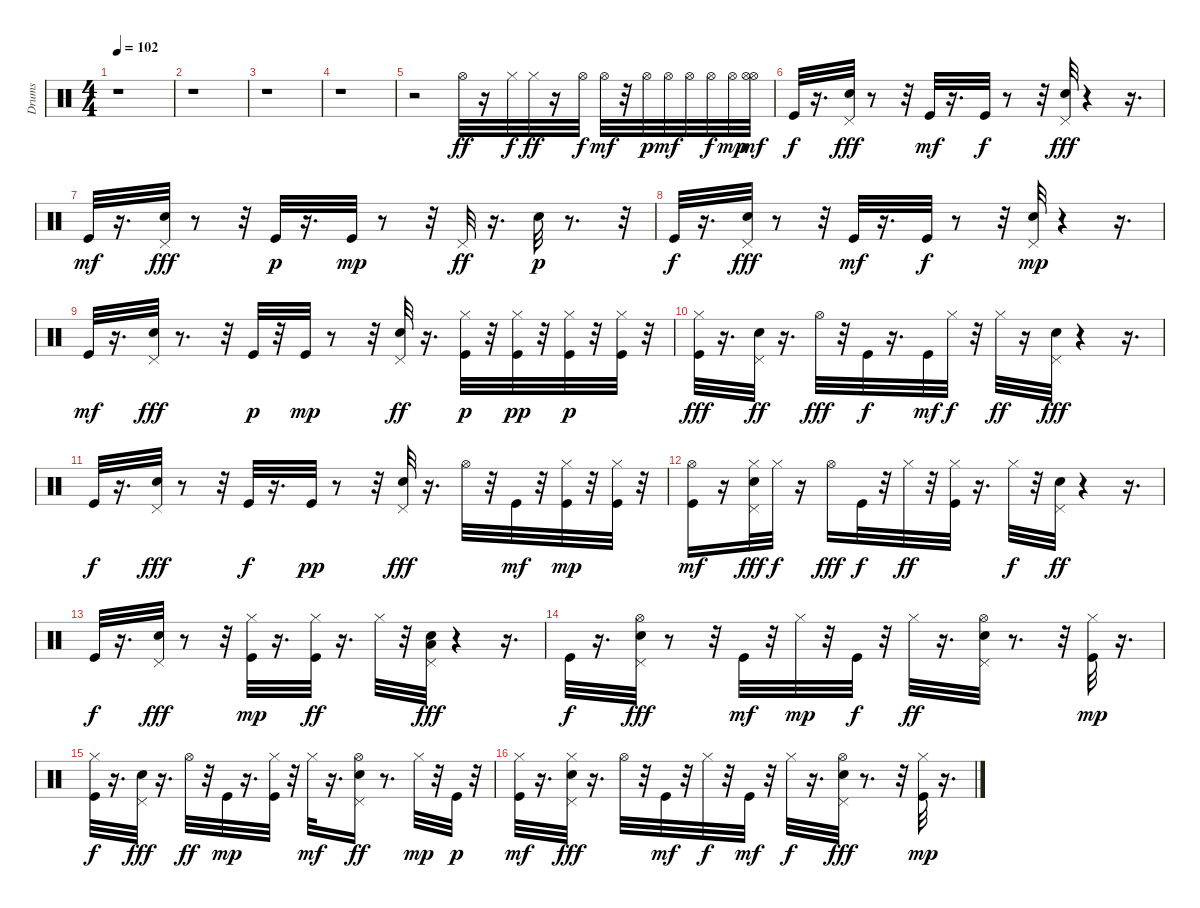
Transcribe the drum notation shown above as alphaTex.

\track ("Drums" "Drums") {instrument percussion}
\staff {score}
\articulation defaults
\ts (4 4)
\tempo 102
\clef neutral
\ks c
r.1{dy ff} |
r.1 |
r.1 |
r.1 |
r.2 "Hi-Hat (open)".32 r.16 "Hi-Hat (closed)".32{dy f} "Hi-Hat (closed)".32{dy ff} r.16 "Hi-Hat (open)".32{dy f} "Hi-Hat (open)".32{dy mf} r.32 "Hi-Hat (open)".32{dy p} "Hi-Hat (open)".32{dy mf} "Hi-Hat (open)".32 "Hi-Hat (open)".32{dy f} "Hi-Hat (open)".32{dy mp} ("Hi-Hat (open)" "Hi-Hat (open)").32{dy mf} |
"Kick (hit)".32{dy f} r.16{d} ("Snare (hit) 2" "Pedal Hi-Hat (hit)").32{dy fff} r.8 r.32 "Kick (hit)".32{dy mf} r.16{d} "Kick (hit)".32{dy f} r.8 r.32 ("Snare (hit) 2" "Pedal Hi-Hat (hit)").32{dy fff} r.4 r.16{d} |
"Kick (hit)".32{dy mf} r.16{d} ("Snare (hit) 2" "Pedal Hi-Hat (hit)").32{dy fff} r.8 r.32 "Kick (hit)".32{dy p} r.16{d} "Kick (hit)".32{dy mp} r.8 r.32 "Pedal Hi-Hat (hit)".32{dy ff} r.16{d} "Snare (hit) 2".32{dy p} r.8{d} r.32 |
"Kick (hit)".32{dy f} r.16{d} ("Snare (hit) 2" "Pedal Hi-Hat (hit)").32{dy fff} r.8 r.32 "Kick (hit)".32{dy mf} r.16{d} "Kick (hit)".32{dy f} r.8 r.32 ("Snare (hit) 2" "Pedal Hi-Hat (hit)").32{dy mp} r.4 r.16{d} |
"Kick (hit)".32{dy mf} r.16{d} ("Snare (hit) 2" "Pedal Hi-Hat (hit)").32{dy fff} r.8{d} r.32 "Kick (hit)".32{dy p} r.32 "Kick (hit)".32{dy mp} r.8 r.32 ("Snare (hit) 2" "Pedal Hi-Hat (hit)").32{dy ff} r.16{d} ("Hi-Hat (closed)" "Kick (hit)").32{dy p} r.32 ("Hi-Hat (closed)" "Kick (hit)").32{dy pp} r.32 ("Hi-Hat (closed)" "Kick (hit)").32{dy p} r.32 ("Hi-Hat (closed)" "Kick (hit)").32 r.32 |
("Hi-Hat (closed)" "Kick (hit)").32{dy fff} r.16{d} ("Snare (hit) 2" "Pedal Hi-Hat (hit)").32{dy ff} r.16{d} "Hi-Hat (open)".32{dy fff} r.32 "Kick (hit)".32{dy f} r.16{d} "Kick (hit)".32{dy mf} "Hi-Hat (closed)".32{dy f} r.32 "Hi-Hat (closed)".32{dy ff} r.16 ("Snare (hit) 2" "Pedal Hi-Hat (hit)").32{dy fff} r.4 r.16{d} |
"Kick (hit)".32{dy f} r.16{d} ("Snare (hit) 2" "Pedal Hi-Hat (hit)").32{dy fff} r.8 r.32 "Kick (hit)".32{dy f} r.16{d} "Kick (hit)".32{dy pp} r.8 r.32 ("Snare (hit) 2" "Pedal Hi-Hat (hit)").32{dy fff} r.16{d} "Hi-Hat (open)".32 r.32 "Kick (hit)".32{dy mf} r.32 ("Hi-Hat (closed)" "Kick (hit)").32{dy mp} r.32 ("Hi-Hat (closed)" "Kick (hit)").32 r.32 |
("Hi-Hat (open)" "Kick (hit)").16{dy mf} r.16 ("Hi-Hat (closed)" "Snare (hit) 2" "Pedal Hi-Hat (hit)").32{dy fff} "Hi-Hat (closed)".32{dy f} r.16 "Hi-Hat (open)".16{dy fff} "Kick (hit)".32{dy f} r.32 "Hi-Hat (closed)".32{dy ff} r.32 ("Kick (hit)" "Hi-Hat (closed)").32 r.16{d} "Hi-Hat (closed)".32{dy f} r.32 ("Snare (hit) 2" "Pedal Hi-Hat (hit)").32{dy ff} r.4 r.16{d} |
"Kick (hit)".32{dy f} r.16{d} ("Snare (hit) 2" "Pedal Hi-Hat (hit)").32{dy fff} r.8 r.32 ("Hi-Hat (closed)" "Kick (hit)").32{dy mp} r.16{d} ("Kick (hit)" "Hi-Hat (closed)").32{dy ff} r.16{d} "Hi-Hat (closed)".32 r.32 ("Low Floor Tom (hit)" "Snare (hit) 2" "Pedal Hi-Hat (hit)").32{dy fff} r.4 r.16{d} |
"Kick (hit)".32{dy f} r.16{d} ("Snare (hit) 2" "Pedal Hi-Hat (hit)" "Hi-Hat (open)").32{dy fff} r.8 r.32 "Kick (hit)".32{dy mf} r.32 "Hi-Hat (closed)".32{dy mp} r.32 "Kick (hit)".32{dy f} r.32 "Hi-Hat (closed)".32{dy ff} r.16{d} ("Snare (hit) 2" "Pedal Hi-Hat (hit)" "Hi-Hat (open)").32 r.8{d} r.32 ("Hi-Hat (closed)" "Kick (hit)").32{dy mp} r.16{d} |
("Hi-Hat (closed)" "Kick (hit)").32{dy f} r.16{d} ("Snare (hit) 2" "Pedal Hi-Hat (hit)").32{dy fff} r.16{d} "Hi-Hat (open)".32{dy ff} r.32 "Kick (hit)".32{dy mp} r.16{d} ("Kick (hit)" "Hi-Hat (closed)").32 r.32 "Hi-Hat (closed)".32{dy mf} r.16{d} ("Snare (hit) 2" "Pedal Hi-Hat (hit)" "Hi-Hat (open)").16{dy ff} r.8{d} "Hi-Hat (closed)".32{dy mp} r.32 "Kick (hit)".32{dy p} r.32 |
("Kick (hit)" "Hi-Hat (closed)").32{dy mf} r.16{d} ("Snare (hit) 2" "Hi-Hat (closed)" "Pedal Hi-Hat (hit)").32{dy fff} r.16{d} "Hi-Hat (open)".32 r.32 "Kick (hit)".32{dy mf} r.32 "Hi-Hat (closed)".32{dy f} r.32 "Kick (hit)".32{dy mf} r.32 "Hi-Hat (closed)".32{dy f} r.16{d} ("Snare (hit) 2" "Pedal Hi-Hat (hit)" "Hi-Hat (open)").32{dy fff} r.8{d} r.32 ("Kick (hit)" "Hi-Hat (closed)").32{dy mp} r.16{d}
